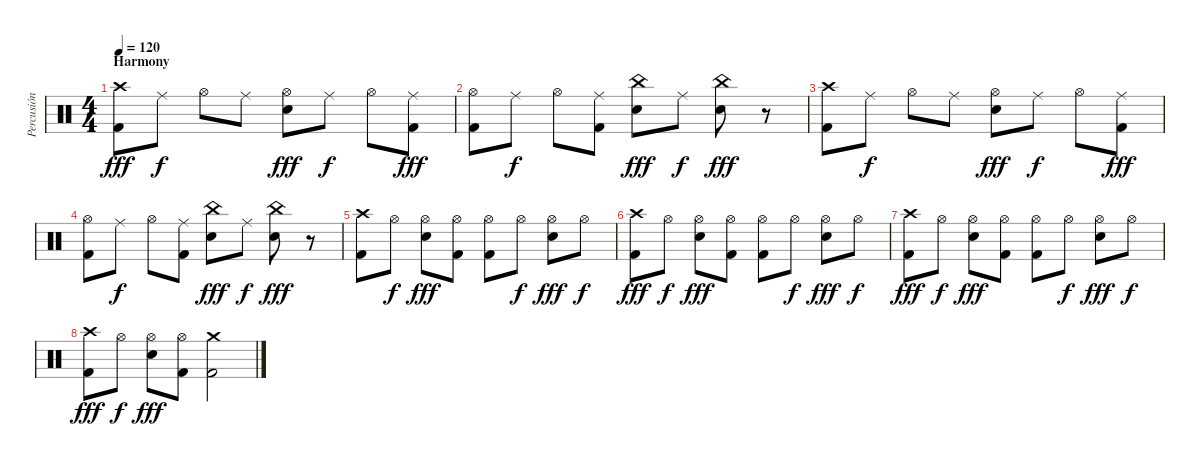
\track ("Percusión" "Percusión") {instrument percussion}
\staff {score}
\articulation defaults
\ts (4 4)
\section ("" "Harmony")
\tempo 120
\clef neutral
\ks c
("Crash high (hit)" "Kick (hit) 2").8{dy fff} "Ride (middle)".8{dy f} "Hi-Hat (open)".8 "Ride (middle)".8 ("Hi-Hat (open)" "Snare (hit) 2").8{dy fff} "Ride (middle)".8{dy f} "Hi-Hat (open)".8 ("Ride (middle)" "Kick (hit) 2").8{dy fff} |
("Hi-Hat (open)" "Kick (hit) 2").8 "Ride (middle)".8{dy f} "Hi-Hat (open)".8 ("Ride (middle)" "Kick (hit) 2").8 ("China (hit)" "Snare (hit) 2").8{dy fff} "Ride (middle)".8{dy f} ("China (hit)" "Snare (hit) 2").8{dy fff} r.8 |
("Crash high (hit)" "Kick (hit) 2").8 "Ride (middle)".8{dy f} "Hi-Hat (open)".8 "Ride (middle)".8 ("Hi-Hat (open)" "Snare (hit) 2").8{dy fff} "Ride (middle)".8{dy f} "Hi-Hat (open)".8 ("Ride (middle)" "Kick (hit) 2").8{dy fff} |
("Hi-Hat (open)" "Kick (hit) 2").8 "Ride (middle)".8{dy f} "Hi-Hat (open)".8 ("Ride (middle)" "Kick (hit) 2").8 ("China (hit)" "Snare (hit) 2").8{dy fff} "Ride (middle)".8{dy f} ("China (hit)" "Snare (hit) 2").8{dy fff} r.8 |
("Crash high (hit)" "Kick (hit) 2").8 "Hi-Hat (open)".8{dy f} ("Hi-Hat (open)" "Snare (hit) 2").8{dy fff} ("Hi-Hat (open)" "Kick (hit) 2").8 ("Hi-Hat (open)" "Kick (hit) 2").8 "Hi-Hat (open)".8{dy f} ("Hi-Hat (open)" "Snare (hit) 2").8{dy fff} "Hi-Hat (open)".8{dy f} |
("Crash high (hit)" "Kick (hit) 2").8{dy fff} "Hi-Hat (open)".8{dy f} ("Hi-Hat (open)" "Snare (hit) 2").8{dy fff} ("Hi-Hat (open)" "Kick (hit) 2").8 ("Hi-Hat (open)" "Kick (hit) 2").8 "Hi-Hat (open)".8{dy f} ("Hi-Hat (open)" "Snare (hit) 2").8{dy fff} "Hi-Hat (open)".8{dy f} |
("Crash high (hit)" "Kick (hit) 2").8{dy fff} "Hi-Hat (open)".8{dy f} ("Hi-Hat (open)" "Snare (hit) 2").8{dy fff} ("Hi-Hat (open)" "Kick (hit) 2").8 ("Hi-Hat (open)" "Kick (hit) 2").8 "Hi-Hat (open)".8{dy f} ("Hi-Hat (open)" "Snare (hit) 2").8{dy fff} "Hi-Hat (open)".8{dy f} |
("Crash high (hit)" "Kick (hit) 2").8{dy fff} "Hi-Hat (open)".8{dy f} ("Hi-Hat (open)" "Snare (hit) 2").8{dy fff} ("Hi-Hat (open)" "Kick (hit) 2").8 ("Crash medium (hit)" "Kick (hit) 2").2
